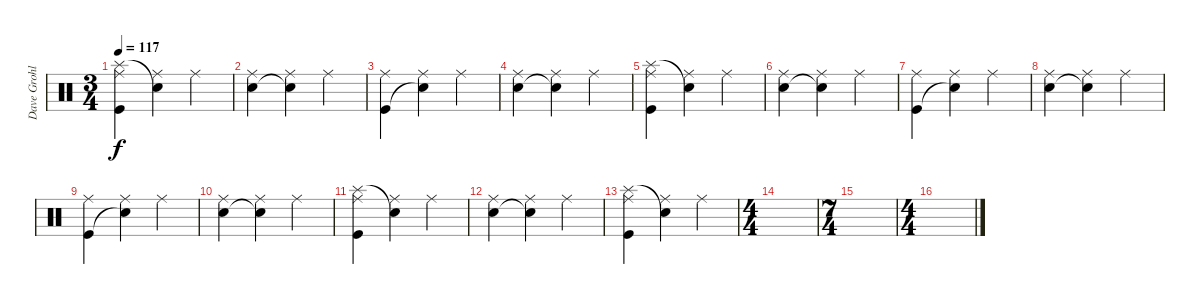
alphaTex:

\track ("Dave Grohl-Drums" "Dave Grohl") {instrument percussion}
\staff {score}
\articulation defaults
\ts (3 4)
\tempo 117
\clef neutral
\ks c
("Splash (hit)" "Kick (hit)" "Ride (middle)").4{dy f} ("Snare (hit)"{t} "Ride (middle)").4 "Ride (middle)".4 |
("Electric Snare (hit)" "Ride (middle)").4 ("Snare (hit)"{t} "Ride (middle)").4 "Ride (middle)".4 |
("Kick (hit)" "Ride (middle)").4 ("Snare (hit)"{t} "Ride (middle)").4 "Ride (middle)".4 |
("Electric Snare (hit)" "Ride (middle)").4 ("Snare (hit)"{t} "Ride (middle)").4 "Ride (middle)".4 |
("Splash (hit)" "Kick (hit)" "Ride (middle)").4 ("Snare (hit)"{t} "Ride (middle)").4 "Ride (middle)".4 |
("Electric Snare (hit)" "Ride (middle)").4 ("Snare (hit)"{t} "Ride (middle)").4 "Ride (middle)".4 |
("Kick (hit)" "Ride (middle)").4 ("Snare (hit)"{t} "Ride (middle)").4 "Ride (middle)".4 |
("Electric Snare (hit)" "Ride (middle)").4 ("Snare (hit)"{t} "Ride (middle)").4 "Ride (middle)".4 |
("Kick (hit)" "Ride (middle)").4 ("Snare (hit)"{t} "Ride (middle)").4 "Ride (middle)".4 |
("Electric Snare (hit)" "Ride (middle)").4 ("Snare (hit)"{t} "Ride (middle)").4 "Ride (middle)".4 |
("Splash (hit)" "Kick (hit)" "Ride (middle)").4 ("Snare (hit)"{t} "Ride (middle)").4 "Ride (middle)".4 |
("Electric Snare (hit)" "Ride (middle)").4 ("Snare (hit)"{t} "Ride (middle)").4 "Ride (middle)".4 |
("Splash (hit)" "Kick (hit)" "Ride (middle)").4 ("Snare (hit)"{t} "Ride (middle)").4 "Ride (middle)".4 |
\ts (4 4)
|
\ts (7 4)
|
\ts (4 4)
